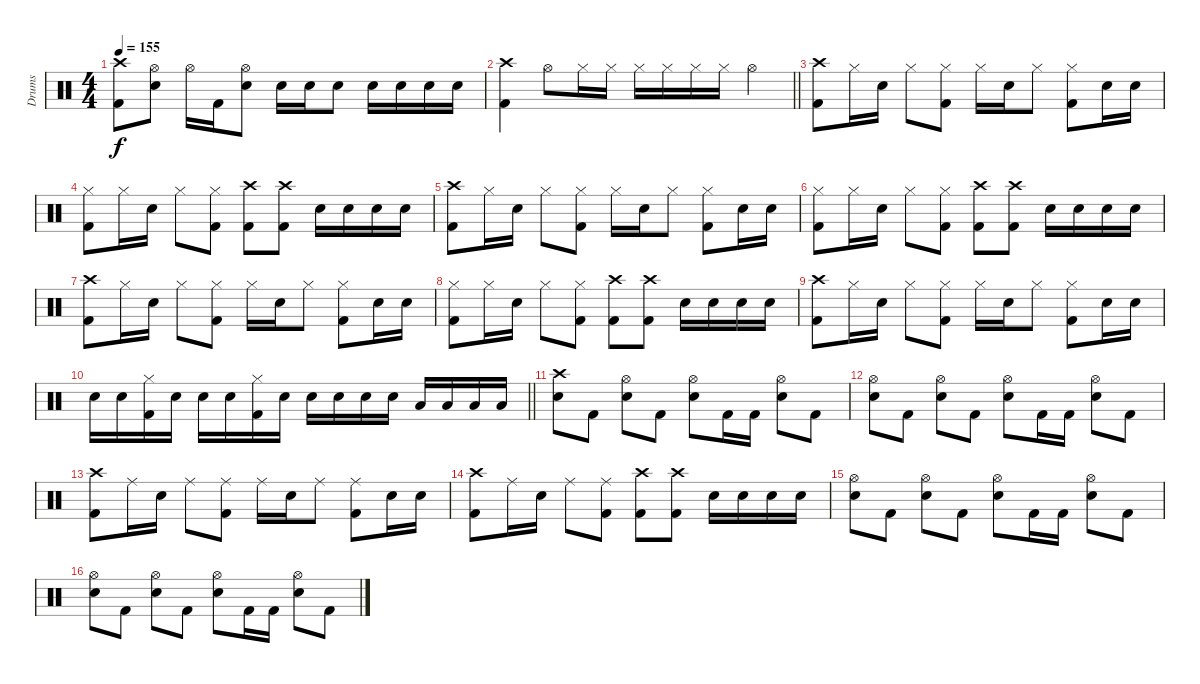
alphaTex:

\track ("Drums" "Drums") {instrument percussion}
\staff {score}
\articulation defaults
\ts (4 4)
\tempo 155
\clef neutral
\ks c
("Crash high (hit)" "Kick (hit) 2").8{dy f} ("Hi-Hat (open)" "Snare (hit) 2").8 "Hi-Hat (open)".16 "Kick (hit) 2".16 ("Hi-Hat (open)" "Snare (hit) 2").8 "Snare (hit) 2".16 "Snare (hit) 2".16 "Snare (hit) 2".8 "Snare (hit) 2".16 "Snare (hit) 2".16 "Snare (hit) 2".16 "Snare (hit) 2".16 |
\barLineRight lightlight
("Crash high (hit)" "Kick (hit) 2").4 "Hi-Hat (open)".8 "Hi-Hat (closed)".16 "Hi-Hat (closed)".16 "Hi-Hat (closed)".16 "Hi-Hat (closed)".16 "Hi-Hat (closed)".16 "Hi-Hat (closed)".16 "Hi-Hat (open)".4 |
("Crash high (hit)" "Kick (hit) 2").8 "Hi-Hat (closed)".16 "Snare (hit) 2".16 "Hi-Hat (closed)".8 ("Hi-Hat (closed)" "Kick (hit) 2").8 "Hi-Hat (closed)".16 "Snare (hit) 2".16 "Hi-Hat (closed)".8 ("Hi-Hat (closed)" "Kick (hit) 2").8 "Snare (hit) 2".16 "Snare (hit) 2".16 |
("Hi-Hat (closed)" "Kick (hit) 2").8 "Hi-Hat (closed)".16 "Snare (hit) 2".16 "Hi-Hat (closed)".8 ("Hi-Hat (closed)" "Kick (hit) 2").8 ("Crash high (hit)" "Kick (hit) 2").8 ("Crash high (hit)" "Kick (hit) 2").8 "Snare (hit) 2".16 "Snare (hit) 2".16 "Snare (hit) 2".16 "Snare (hit) 2".16 |
("Crash high (hit)" "Kick (hit) 2").8 "Hi-Hat (closed)".16 "Snare (hit) 2".16 "Hi-Hat (closed)".8 ("Hi-Hat (closed)" "Kick (hit) 2").8 "Hi-Hat (closed)".16 "Snare (hit) 2".16 "Hi-Hat (closed)".8 ("Hi-Hat (closed)" "Kick (hit) 2").8 "Snare (hit) 2".16 "Snare (hit) 2".16 |
("Hi-Hat (closed)" "Kick (hit) 2").8 "Hi-Hat (closed)".16 "Snare (hit) 2".16 "Hi-Hat (closed)".8 ("Hi-Hat (closed)" "Kick (hit) 2").8 ("Crash high (hit)" "Kick (hit) 2").8 ("Crash high (hit)" "Kick (hit) 2").8 "Snare (hit) 2".16 "Snare (hit) 2".16 "Snare (hit) 2".16 "Snare (hit) 2".16 |
("Crash high (hit)" "Kick (hit) 2").8 "Hi-Hat (closed)".16 "Snare (hit) 2".16 "Hi-Hat (closed)".8 ("Hi-Hat (closed)" "Kick (hit) 2").8 "Hi-Hat (closed)".16 "Snare (hit) 2".16 "Hi-Hat (closed)".8 ("Hi-Hat (closed)" "Kick (hit) 2").8 "Snare (hit) 2".16 "Snare (hit) 2".16 |
("Hi-Hat (closed)" "Kick (hit) 2").8 "Hi-Hat (closed)".16 "Snare (hit) 2".16 "Hi-Hat (closed)".8 ("Hi-Hat (closed)" "Kick (hit) 2").8 ("Crash high (hit)" "Kick (hit) 2").8 ("Crash high (hit)" "Kick (hit) 2").8 "Snare (hit) 2".16 "Snare (hit) 2".16 "Snare (hit) 2".16 "Snare (hit) 2".16 |
("Crash high (hit)" "Kick (hit) 2").8 "Hi-Hat (closed)".16 "Snare (hit) 2".16 "Hi-Hat (closed)".8 ("Hi-Hat (closed)" "Kick (hit) 2").8 "Hi-Hat (closed)".16 "Snare (hit) 2".16 "Hi-Hat (closed)".8 ("Hi-Hat (closed)" "Kick (hit) 2").8 "Snare (hit) 2".16 "Snare (hit) 2".16 |
\barLineRight lightlight "Snare (hit) 2".16 "Snare (hit) 2".16
("Hi-Hat (closed)" "Kick (hit) 2").16 "Snare (hit) 2".16 "Snare (hit) 2".16 "Snare (hit) 2".16 ("Hi-Hat (closed)" "Kick (hit) 2").16 "Snare (hit) 2".16 "Snare (hit) 2".16 "Snare (hit) 2".16 "Snare (hit) 2".16 "Snare (hit) 2".16 "Low Tom (hit)".16 "Low Tom (hit)".16 "Low Floor Tom (hit)".16 "Low Floor Tom (hit)".16 |
("Crash high (hit)" "Snare (hit) 2").8 "Kick (hit) 2".8 ("Hi-Hat (open)" "Snare (hit) 2").8 "Kick (hit) 2".8 ("Hi-Hat (open)" "Snare (hit) 2").8 "Kick (hit) 2".16 "Kick (hit) 2".16 ("Hi-Hat (open)" "Snare (hit) 2").8 "Kick (hit) 2".8 |
("Hi-Hat (open)" "Snare (hit) 2").8 "Kick (hit) 2".8 ("Hi-Hat (open)" "Snare (hit) 2").8 "Kick (hit) 2".8 ("Hi-Hat (open)" "Snare (hit) 2").8 "Kick (hit) 2".16 "Kick (hit) 2".16 ("Hi-Hat (open)" "Snare (hit) 2").8 "Kick (hit) 2".8 |
("Crash high (hit)" "Kick (hit) 2").8 "Ride (middle)".16 "Snare (hit) 2".16 "Ride (middle)".8 ("Ride (middle)" "Kick (hit) 2").8 "Ride (middle)".16 "Snare (hit) 2".16 "Ride (middle)".8 ("Ride (middle)" "Kick (hit) 2").8 "Snare (hit) 2".16 "Snare (hit) 2".16 |
("Crash high (hit)" "Kick (hit) 2").8 "Ride (middle)".16 "Snare (hit) 2".16 "Ride (middle)".8 ("Ride (middle)" "Kick (hit) 2").8 ("Crash high (hit)" "Kick (hit) 2").8 ("Crash high (hit)" "Kick (hit) 2").8 "Snare (hit) 2".16 "Snare (hit) 2".16 "Snare (hit) 2".16 "Snare (hit) 2".16 |
("Hi-Hat (open)" "Snare (hit) 2").8 "Kick (hit) 2".8 ("Hi-Hat (open)" "Snare (hit) 2").8 "Kick (hit) 2".8 ("Hi-Hat (open)" "Snare (hit) 2").8 "Kick (hit) 2".16 "Kick (hit) 2".16 ("Hi-Hat (open)" "Snare (hit) 2").8 "Kick (hit) 2".8 |
("Hi-Hat (open)" "Snare (hit) 2").8 "Kick (hit) 2".8 ("Hi-Hat (open)" "Snare (hit) 2").8 "Kick (hit) 2".8 ("Hi-Hat (open)" "Snare (hit) 2").8 "Kick (hit) 2".16 "Kick (hit) 2".16 ("Hi-Hat (open)" "Snare (hit) 2").8 "Kick (hit) 2".8
